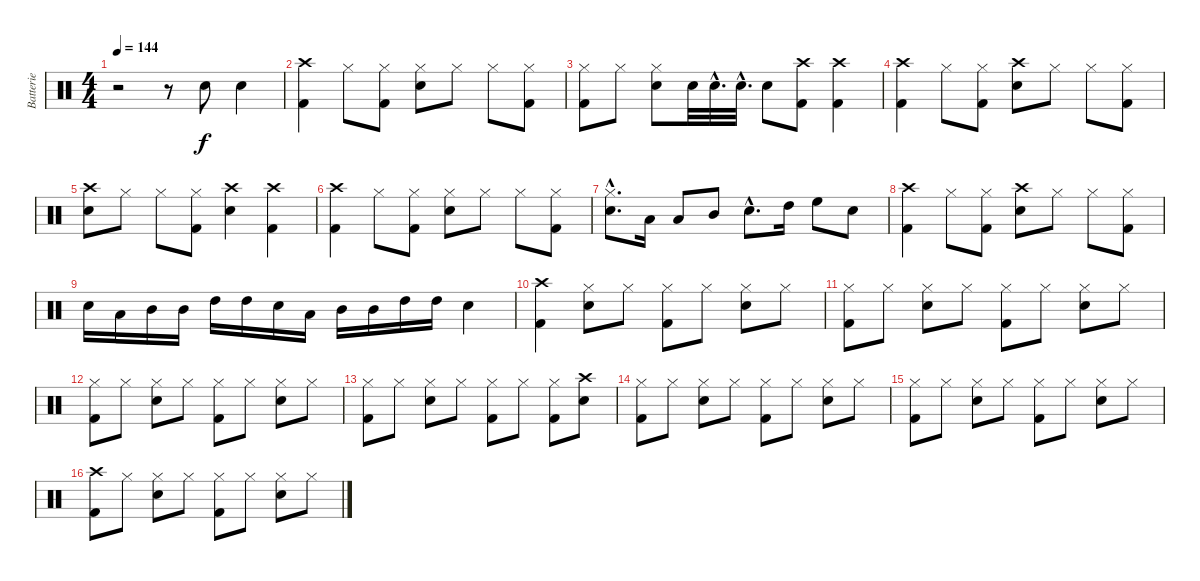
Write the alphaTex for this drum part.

\track ("Batterie" "Batterie") {instrument percussion}
\staff {score}
\articulation defaults
\ts (4 4)
\tempo 144
\clef neutral
\ks c
r.2{dy f} r.8 "Snare (hit) 2".8 "Snare (hit) 2".4 |
("Crash high (hit)" "Kick (hit) 2").4 "Hi-Hat (closed)".8 ("Hi-Hat (closed)" "Kick (hit) 2").8 ("Hi-Hat (closed)" "Snare (hit) 2").8 "Hi-Hat (closed)".8 "Hi-Hat (closed)".8 ("Hi-Hat (closed)" "Kick (hit) 2").8 |
("Hi-Hat (closed)" "Kick (hit) 2").8 "Hi-Hat (closed)".8 ("Hi-Hat (closed)" "Snare (hit) 2").8 "Snare (hit) 2".32 "Snare (hit) 2"{hac}.32{d} "Snare (hit) 2"{hac}.32{d} "Snare (hit) 2".8 ("Crash high (hit)" "Kick (hit) 2").8 ("Crash high (hit)" "Kick (hit) 2").4 |
("Crash high (hit)" "Kick (hit) 2").4 "Hi-Hat (closed)".8 ("Hi-Hat (closed)" "Kick (hit) 2").8 ("Crash high (hit)" "Snare (hit) 2").8 "Hi-Hat (closed)".8 "Hi-Hat (closed)".8 ("Hi-Hat (closed)" "Kick (hit) 2").8 |
("Crash high (hit)" "Snare (hit) 2").8 "Hi-Hat (closed)".8 "Hi-Hat (closed)".8 ("Hi-Hat (closed)" "Kick (hit) 2").8 ("Crash high (hit)" "Snare (hit) 2").4 ("Crash high (hit)" "Kick (hit) 2").4 |
("Crash high (hit)" "Kick (hit) 2").4 "Hi-Hat (closed)".8 ("Hi-Hat (closed)" "Kick (hit) 2").8 ("Hi-Hat (closed)" "Snare (hit) 2").8 "Hi-Hat (closed)".8 "Hi-Hat (closed)".8 ("Hi-Hat (closed)" "Kick (hit) 2").8 |
("Hi-Hat (closed)"{hac} "Snare (hit) 2"{hac}).8{d} "Low Tom (hit)".16 "Low Tom (hit)".8 "Mid Tom (hit)".8 "Snare (hit) 2"{hac}.8{d} "High Tom (hit)".16 "High Floor Tom (hit)".8 "Snare (hit) 2".8 |
("Crash high (hit)" "Kick (hit) 2").4 "Hi-Hat (closed)".8 ("Hi-Hat (closed)" "Kick (hit) 2").8 ("Crash high (hit)" "Snare (hit) 2").8 "Hi-Hat (closed)".8 "Hi-Hat (closed)".8 ("Hi-Hat (closed)" "Kick (hit) 2").8 |
"Snare (hit) 2".16 "Low Tom (hit)".16 "Mid Tom (hit)".16 "Mid Tom (hit)".16 "High Tom (hit)".16 "High Tom (hit)".16 "Snare (hit) 2".16 "Low Tom (hit)".16 "Mid Tom (hit)".16 "Mid Tom (hit)".16 "High Tom (hit)".16 "High Tom (hit)".16 "Snare (hit) 2".4 |
("Crash high (hit)" "Kick (hit) 2").4 ("Hi-Hat (closed)" "Snare (hit) 2").8 "Hi-Hat (closed)".8 ("Hi-Hat (closed)" "Kick (hit) 2").8 "Hi-Hat (closed)".8 ("Hi-Hat (closed)" "Snare (hit) 2").8 "Hi-Hat (closed)".8 |
("Hi-Hat (closed)" "Kick (hit) 2").8 "Hi-Hat (closed)".8 ("Hi-Hat (closed)" "Snare (hit) 2").8 "Hi-Hat (closed)".8 ("Hi-Hat (closed)" "Kick (hit) 2").8 "Hi-Hat (closed)".8 ("Hi-Hat (closed)" "Snare (hit) 2").8 "Hi-Hat (closed)".8 |
("Hi-Hat (closed)" "Kick (hit) 2").8 "Hi-Hat (closed)".8 ("Hi-Hat (closed)" "Snare (hit) 2").8 "Hi-Hat (closed)".8 ("Hi-Hat (closed)" "Kick (hit) 2").8 "Hi-Hat (closed)".8 ("Hi-Hat (closed)" "Snare (hit) 2").8 "Hi-Hat (closed)".8 |
("Hi-Hat (closed)" "Kick (hit) 2").8 "Hi-Hat (closed)".8 ("Hi-Hat (closed)" "Snare (hit) 2").8 "Hi-Hat (closed)".8 ("Hi-Hat (closed)" "Kick (hit) 2").8 "Hi-Hat (closed)".8 ("Hi-Hat (closed)" "Kick (hit) 2").8 ("Crash high (hit)" "Snare (hit) 2").8 |
("Hi-Hat (closed)" "Kick (hit) 2").8 "Hi-Hat (closed)".8 ("Hi-Hat (closed)" "Snare (hit) 2").8 "Hi-Hat (closed)".8 ("Hi-Hat (closed)" "Kick (hit) 2").8 "Hi-Hat (closed)".8 ("Hi-Hat (closed)" "Snare (hit) 2").8 "Hi-Hat (closed)".8 |
("Hi-Hat (closed)" "Kick (hit) 2").8 "Hi-Hat (closed)".8 ("Hi-Hat (closed)" "Snare (hit) 2").8 "Hi-Hat (closed)".8 ("Hi-Hat (closed)" "Kick (hit) 2").8 "Hi-Hat (closed)".8 ("Hi-Hat (closed)" "Snare (hit) 2").8 "Hi-Hat (closed)".8 |
("Crash high (hit)" "Kick (hit) 2").8 "Hi-Hat (closed)".8 ("Hi-Hat (closed)" "Snare (hit) 2").8 "Hi-Hat (closed)".8 ("Hi-Hat (closed)" "Kick (hit) 2").8 "Hi-Hat (closed)".8 ("Hi-Hat (closed)" "Snare (hit) 2").8 "Hi-Hat (closed)".8
